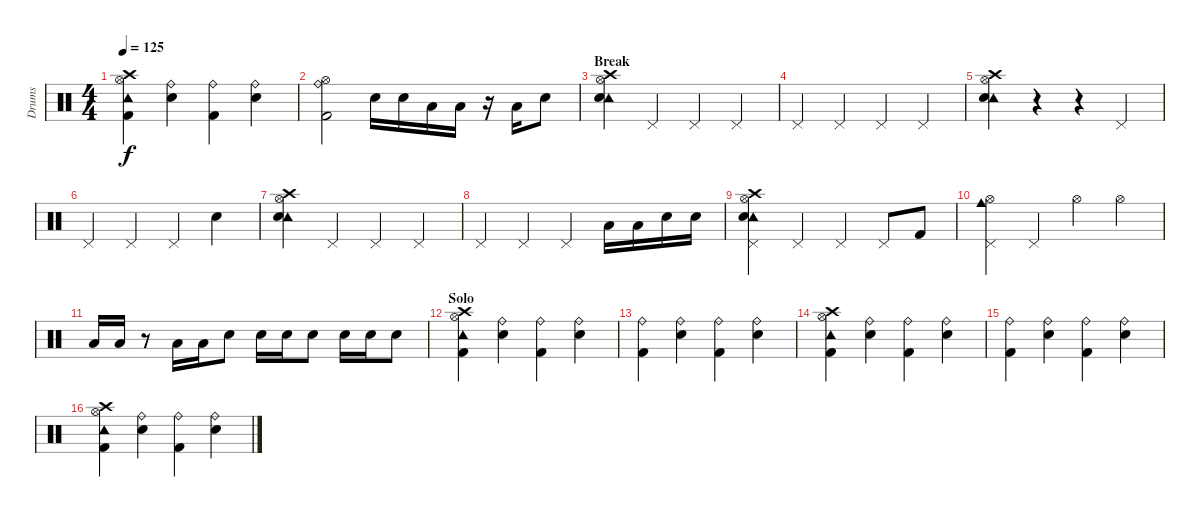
\track ("Drums" "Drums") {instrument percussion}
\staff {score}
\articulation defaults
\ts (4 4)
\tempo 125
\clef neutral
\ks c
("Crash high (hit)" "Hi-Hat (open)" "Tambourine (hit)" "Kick (hit) 2").4{dy f} ("Ride (bell)" "Snare (hit) 2").4 ("Ride (bell)" "Kick (hit) 2").4 ("Ride (bell)" "Snare (hit) 2").4 |
("Ride (bell)" "Hi-Hat (open)" "Kick (hit) 2").2 "Snare (hit) 2".16 "Snare (hit) 2".16 "Low Floor Tom (hit)".16 "Low Floor Tom (hit)".16 r.16 "Low Floor Tom (hit)".16 "Electric Snare (hit)".8 |
\section ("" "Break")
("Hi-Hat (open)" "Crash high (hit)" "Tambourine (hit)" "Snare (hit) 2").4 "Pedal Hi-Hat (hit)".4 "Pedal Hi-Hat (hit)".4 "Pedal Hi-Hat (hit)".4 |
"Pedal Hi-Hat (hit)".4 "Pedal Hi-Hat (hit)".4 "Pedal Hi-Hat (hit)".4 "Pedal Hi-Hat (hit)".4 |
("Hi-Hat (open)" "Crash high (hit)" "Tambourine (hit)" "Snare (hit) 2").4 r.4 r.4 "Pedal Hi-Hat (hit)".4 |
"Pedal Hi-Hat (hit)".4 "Pedal Hi-Hat (hit)".4 "Pedal Hi-Hat (hit)".4 "Snare (hit) 2".4 |
("Hi-Hat (open)" "Crash high (hit)" "Tambourine (hit)" "Snare (hit) 2").4 "Pedal Hi-Hat (hit)".4 "Pedal Hi-Hat (hit)".4 "Pedal Hi-Hat (hit)".4 |
"Pedal Hi-Hat (hit)".4 "Pedal Hi-Hat (hit)".4 "Pedal Hi-Hat (hit)".4 "Low Floor Tom (hit)".16 "Low Floor Tom (hit)".16 "Electric Snare (hit)".16 "Snare (hit) 2".16 |
("Pedal Hi-Hat (hit)" "Crash high (hit)" "Hi-Hat (open)" "Tambourine (hit)" "Snare (hit) 2").4 "Pedal Hi-Hat (hit)".4 "Pedal Hi-Hat (hit)".4 "Pedal Hi-Hat (hit)".8 "Kick (hit) 2".8 |
("Pedal Hi-Hat (hit)" "Cowbell medium (hit)" "Hi-Hat (open)").4 "Pedal Hi-Hat (hit)".4 "Hi-Hat (open)".4 "Hi-Hat (open)".4 |
"Low Floor Tom (hit)".16 "Low Floor Tom (hit)".16 r.8 "Low Floor Tom (hit)".16 "Low Floor Tom (hit)".16 "Electric Snare (hit)".8 "Electric Snare (hit)".16 "Snare (hit) 2".16 "Snare (hit) 2".8 "Snare (hit) 2".16 "Snare (hit) 2".16 "Electric Snare (hit)".8 |
\section ("" "Solo")
("Crash high (hit)" "Hi-Hat (open)" "Tambourine (hit)" "Kick (hit) 2").4 ("Ride (bell)" "Snare (hit) 2").4 ("Ride (bell)" "Kick (hit) 2").4 ("Ride (bell)" "Snare (hit) 2").4 |
("Ride (bell)" "Kick (hit) 2").4 ("Ride (bell)" "Snare (hit) 2").4 ("Ride (bell)" "Kick (hit) 2").4 ("Ride (bell)" "Snare (hit) 2").4 |
("Crash high (hit)" "Hi-Hat (open)" "Tambourine (hit)" "Kick (hit) 2").4 ("Ride (bell)" "Snare (hit) 2").4 ("Ride (bell)" "Kick (hit) 2").4 ("Ride (bell)" "Snare (hit) 2").4 |
("Ride (bell)" "Kick (hit) 2").4 ("Ride (bell)" "Snare (hit) 2").4 ("Ride (bell)" "Kick (hit) 2").4 ("Ride (bell)" "Snare (hit) 2").4 |
("Crash high (hit)" "Hi-Hat (open)" "Tambourine (hit)" "Kick (hit) 2").4 ("Ride (bell)" "Snare (hit) 2").4 ("Ride (bell)" "Kick (hit) 2").4 ("Ride (bell)" "Snare (hit) 2").4
